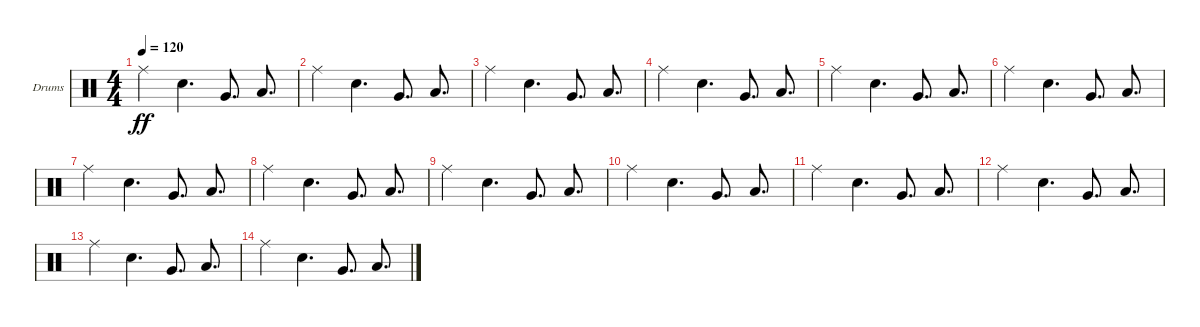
\defaultSystemsLayout 4
\bracketExtendMode groupsimilarinstruments
\firstSystemTrackNameOrientation horizontal
\otherSystemsTrackNameOrientation horizontal
\track ("Drumkit" "Drums") {instrument percussion}
\staff {score}
\articulation defaults
\ts (4 4)
\tempo 120
\clef neutral
\ks c "Ride (middle)".4{dy ff} "Snare (hit) 2".4{d} "Very Low Tom (hit)".8{d} "Low Tom (hit)".8{d}
|
"Ride (middle)".4 "Snare (hit) 2".4{d} "Very Low Tom (hit)".8{d} "Low Tom (hit)".8{d} |
"Ride (middle)".4 "Snare (hit) 2".4{d} "Very Low Tom (hit)".8{d} "Low Tom (hit)".8{d} |
"Ride (middle)".4 "Snare (hit) 2".4{d} "Very Low Tom (hit)".8{d} "Low Tom (hit)".8{d} |
"Ride (middle)".4 "Snare (hit) 2".4{d} "Very Low Tom (hit)".8{d} "Low Tom (hit)".8{d} |
"Ride (middle)".4 "Snare (hit) 2".4{d} "Very Low Tom (hit)".8{d} "Low Tom (hit)".8{d} |
"Ride (middle)".4 "Snare (hit) 2".4{d} "Very Low Tom (hit)".8{d} "Low Tom (hit)".8{d} |
"Ride (middle)".4 "Snare (hit) 2".4{d} "Very Low Tom (hit)".8{d} "Low Tom (hit)".8{d} |
"Ride (middle)".4 "Snare (hit) 2".4{d} "Very Low Tom (hit)".8{d} "Low Tom (hit)".8{d} |
"Ride (middle)".4 "Snare (hit) 2".4{d} "Very Low Tom (hit)".8{d} "Low Tom (hit)".8{d} |
"Ride (middle)".4 "Snare (hit) 2".4{d} "Very Low Tom (hit)".8{d} "Low Tom (hit)".8{d} |
"Ride (middle)".4 "Snare (hit) 2".4{d} "Very Low Tom (hit)".8{d} "Low Tom (hit)".8{d} |
"Ride (middle)".4 "Snare (hit) 2".4{d} "Very Low Tom (hit)".8{d} "Low Tom (hit)".8{d} |
"Ride (middle)".4 "Snare (hit) 2".4{d} "Very Low Tom (hit)".8{d} "Low Tom (hit)".8{d}
